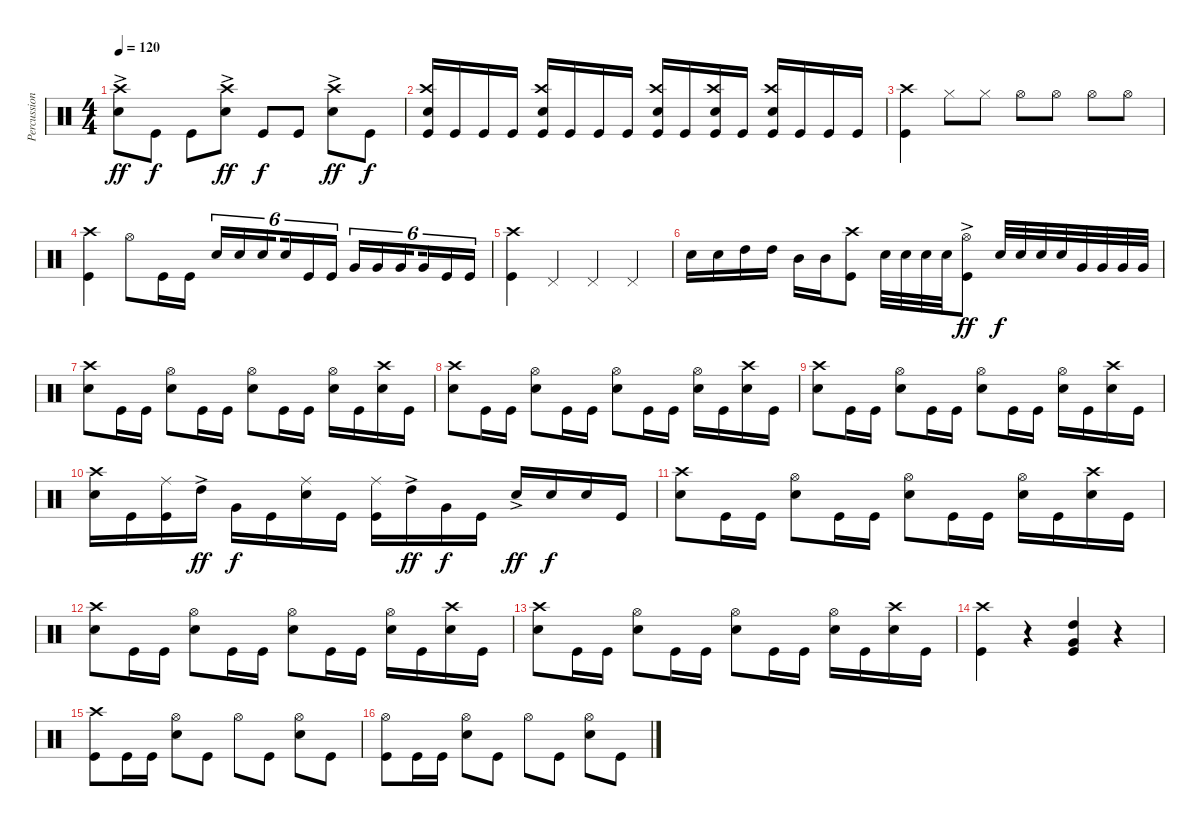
\track ("Percussion" "Percussion") {instrument percussion}
\staff {score}
\articulation defaults
\ts (4 4)
\tempo 120
\clef neutral
\ks c
("Snare (hit) 2"{ac} "Crash high (hit)"{ac}).8{dy ff} "Kick (hit)".8{dy f} "Kick (hit)".8 ("Snare (hit) 2"{ac} "Crash high (hit)"{ac}).8{dy ff} "Kick (hit)".8{dy f} "Kick (hit)".8 ("Crash high (hit)"{ac} "Snare (hit) 2"{ac}).8{dy ff} "Kick (hit)".8{dy f} |
("Kick (hit)" "Snare (hit) 2" "Crash high (hit)").16 "Kick (hit)".16 "Kick (hit)".16 "Kick (hit)".16 ("Kick (hit)" "Snare (hit) 2" "Crash high (hit)").16 "Kick (hit)".16 "Kick (hit)".16 "Kick (hit)".16 ("Kick (hit)" "Snare (hit) 2" "Crash high (hit)").16 "Kick (hit)".16 ("Kick (hit)" "Snare (hit) 2" "Crash high (hit)").16 "Kick (hit)".16 ("Kick (hit)" "Snare (hit) 2" "Crash high (hit)").16 "Kick (hit)".16 "Kick (hit)".16 "Kick (hit)".16 |
("Crash high (hit)" "Kick (hit)").4 "Hi-Hat (closed)".8 "Hi-Hat (closed)".8 "Hi-Hat (open)".8 "Hi-Hat (open)".8 "Hi-Hat (open)".8 "Hi-Hat (open)".8 |
("Crash high (hit)" "Kick (hit)").4 "Hi-Hat (open)".8 "Kick (hit)".16 "Kick (hit)".16 "Snare (hit) 2".16{tu (6 4)} "Snare (hit) 2".16{tu (6 4)} "Snare (hit) 2".16{tu (6 4) beam splitsecondary} "Snare (hit) 2".16{tu (6 4)} "Kick (hit)".16{tu (6 4)} "Kick (hit)".16{tu (6 4)} "Very Low Tom (hit)".16{tu (6 4)} "Very Low Tom (hit)".16{tu (6 4)} "Very Low Tom (hit)".16{tu (6 4) beam splitsecondary} "Very Low Tom (hit)".16{tu (6 4)} "Kick (hit)".16{tu (6 4)} "Kick (hit)".16{tu (6 4)} |
("Kick (hit)" "Crash high (hit)").4 "Pedal Hi-Hat (hit)".4 "Pedal Hi-Hat (hit)".4 "Pedal Hi-Hat (hit)".4 |
"Snare (hit) 2".16 "Snare (hit) 2".16 "High Tom (hit)".16 "High Tom (hit)".16 "Mid Tom (hit)".16 "Mid Tom (hit)".16 ("Kick (hit)" "Crash high (hit)").8 "Snare (hit) 2".32 "Snare (hit) 2".32 "Snare (hit) 2".32 "Snare (hit) 2".32 ("Kick (hit)" "Hi-Hat (open)"{ac}).8{dy ff} "Snare (hit) 2".32{dy f} "Snare (hit) 2".32 "Snare (hit) 2".32 "Snare (hit) 2".32 "Very Low Tom (hit)".32 "Very Low Tom (hit)".32 "Very Low Tom (hit)".32 "Very Low Tom (hit)".32 |
("Snare (hit) 2" "Crash high (hit)").8 "Kick (hit)".16 "Kick (hit)".16 ("Snare (hit) 2" "Hi-Hat (open)").8 "Kick (hit)".16 "Kick (hit)".16 ("Snare (hit) 2" "Hi-Hat (open)").8 "Kick (hit)".16 "Kick (hit)".16 ("Snare (hit) 2" "Hi-Hat (open)").16 "Kick (hit)".16 ("Crash high (hit)" "Snare (hit) 2").16 "Kick (hit)".16 |
("Snare (hit) 2" "Crash high (hit)").8 "Kick (hit)".16 "Kick (hit)".16 ("Snare (hit) 2" "Hi-Hat (open)").8 "Kick (hit)".16 "Kick (hit)".16 ("Snare (hit) 2" "Hi-Hat (open)").8 "Kick (hit)".16 "Kick (hit)".16 ("Snare (hit) 2" "Hi-Hat (open)").16 "Kick (hit)".16 ("Crash high (hit)" "Snare (hit) 2").16 "Kick (hit)".16 |
("Snare (hit) 2" "Crash high (hit)").8 "Kick (hit)".16 "Kick (hit)".16 ("Snare (hit) 2" "Hi-Hat (open)").8 "Kick (hit)".16 "Kick (hit)".16 ("Snare (hit) 2" "Hi-Hat (open)").8 "Kick (hit)".16 "Kick (hit)".16 ("Snare (hit) 2" "Hi-Hat (open)").16 "Kick (hit)".16 ("Crash high (hit)" "Snare (hit) 2").16 "Kick (hit)".16 |
("Snare (hit) 2" "Crash high (hit)").16 "Kick (hit)".16 ("Kick (hit)" "Ride (middle)").16 "High Tom (hit)"{ac}.16{dy ff} "Very Low Tom (hit)".16{dy f} "Kick (hit)".16 ("Snare (hit) 2" "Ride (middle)").16 "Kick (hit)".16 ("Ride (middle)" "Kick (hit)").16 "High Tom (hit)"{ac}.16{dy ff} "Very Low Tom (hit)".16{dy f} "Kick (hit)".16 "Snare (hit) 2"{ac}.16{dy ff} "Snare (hit) 2".16{dy f} "Snare (hit) 2".16 "Kick (hit)".16 |
("Snare (hit) 2" "Crash high (hit)").8 "Kick (hit)".16 "Kick (hit)".16 ("Snare (hit) 2" "Hi-Hat (open)").8 "Kick (hit)".16 "Kick (hit)".16 ("Snare (hit) 2" "Hi-Hat (open)").8 "Kick (hit)".16 "Kick (hit)".16 ("Snare (hit) 2" "Hi-Hat (open)").16 "Kick (hit)".16 ("Crash high (hit)" "Snare (hit) 2").16 "Kick (hit)".16 |
("Snare (hit) 2" "Crash high (hit)").8 "Kick (hit)".16 "Kick (hit)".16 ("Snare (hit) 2" "Hi-Hat (open)").8 "Kick (hit)".16 "Kick (hit)".16 ("Snare (hit) 2" "Hi-Hat (open)").8 "Kick (hit)".16 "Kick (hit)".16 ("Snare (hit) 2" "Hi-Hat (open)").16 "Kick (hit)".16 ("Crash high (hit)" "Snare (hit) 2").16 "Kick (hit)".16 |
("Snare (hit) 2" "Crash high (hit)").8 "Kick (hit)".16 "Kick (hit)".16 ("Snare (hit) 2" "Hi-Hat (open)").8 "Kick (hit)".16 "Kick (hit)".16 ("Snare (hit) 2" "Hi-Hat (open)").8 "Kick (hit)".16 "Kick (hit)".16 ("Snare (hit) 2" "Hi-Hat (open)").16 "Kick (hit)".16 ("Crash high (hit)" "Snare (hit) 2").16 "Kick (hit)".16 |
("Crash high (hit)" "Kick (hit)").4 r.4 ("High Tom (hit)" "Very Low Tom (hit)" "Kick (hit)").4 r.4 |
("Kick (hit)" "Crash high (hit)").8 "Kick (hit)".16 "Kick (hit)".16 ("Snare (hit) 2" "Hi-Hat (open)").8 "Kick (hit)".8 "Hi-Hat (open)".8 "Kick (hit)".8 ("Snare (hit) 2" "Hi-Hat (open)").8 "Kick (hit)".8 |
("Kick (hit)" "Hi-Hat (open)").8 "Kick (hit)".16 "Kick (hit)".16 ("Snare (hit) 2" "Hi-Hat (open)").8 "Kick (hit)".8 "Hi-Hat (open)".8 "Kick (hit)".8 ("Snare (hit) 2" "Hi-Hat (open)").8 "Kick (hit)".8
